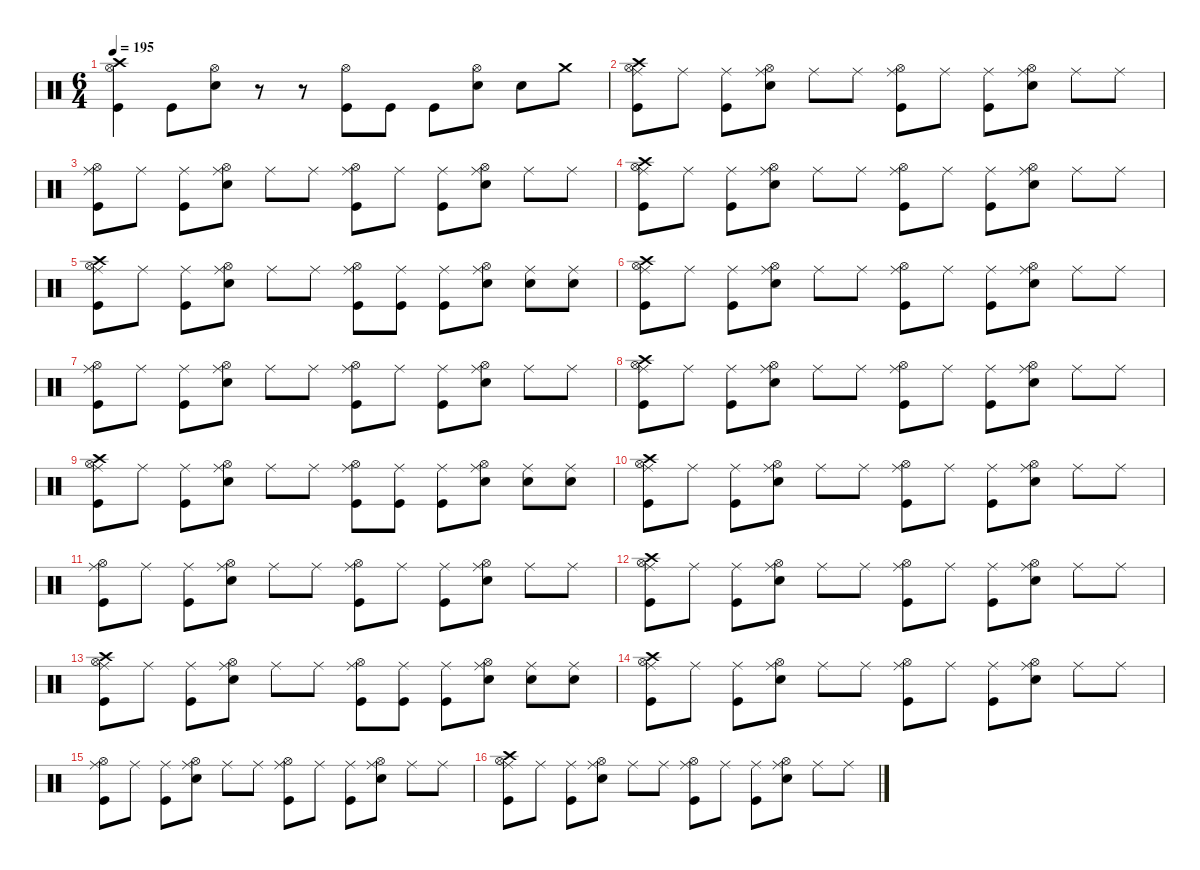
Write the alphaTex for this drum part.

\defaultSystemsLayout 4
\hideDynamics
\bracketExtendMode nobrackets
\singleTrackTrackNamePolicy hidden
\multiTrackTrackNamePolicy hidden
\firstSystemTrackNameMode fullname
\firstSystemTrackNameOrientation horizontal
\otherSystemsTrackNameOrientation horizontal
\track ("Percussion" "drm.") {defaultSystemsLayout 2 instrument percussion}
\staff {score}
\articulation defaults
\ts (6 4)
\tempo 195
\clef neutral
\ks c
("Crash high (hit)" "Hi-Hat (open)" "Kick (hit)").4{dy f beam Down} "Kick (hit)".8{beam Down} ("Hi-Hat (open)" "Snare (hit) 2").8{beam Down} r.8{beam Down} r.8{beam Down} ("Hi-Hat (open)" "Kick (hit)").8{beam Down} "Kick (hit)".8{beam Down} "Kick (hit)".8{beam Down} ("Hi-Hat (open)" "Snare (hit) 2").8{beam Down} "Snare (hit) 2".8{beam Down} "Crash medium (hit)".8{beam Down} |
("Crash high (hit)" "Ride (middle)" "Hi-Hat (open)" "Kick (hit)").8{beam Down} "Ride (middle)".8{beam Down} ("Ride (middle)" "Kick (hit)").8{beam Down} ("Ride (middle)" "Snare (hit) 2" "Hi-Hat (open)").8{beam Down} "Ride (middle)".8{beam Down} "Ride (middle)".8{beam Down} ("Ride (middle)" "Hi-Hat (open)" "Kick (hit)").8{beam Down} "Ride (middle)".8{beam Down} ("Ride (middle)" "Kick (hit)").8{beam Down} ("Ride (middle)" "Snare (hit) 2" "Hi-Hat (open)").8{beam Down} "Ride (middle)".8{beam Down} "Ride (middle)".8{beam Down} |
("Ride (middle)" "Hi-Hat (open)" "Kick (hit)").8{beam Down} "Ride (middle)".8{beam Down} ("Ride (middle)" "Kick (hit)").8{beam Down} ("Ride (middle)" "Snare (hit) 2" "Hi-Hat (open)").8{beam Down} "Ride (middle)".8{beam Down} "Ride (middle)".8{beam Down} ("Ride (middle)" "Hi-Hat (open)" "Kick (hit)").8{beam Down} "Ride (middle)".8{beam Down} ("Ride (middle)" "Kick (hit)").8{beam Down} ("Ride (middle)" "Snare (hit) 2" "Hi-Hat (open)").8{beam Down} "Ride (middle)".8{beam Down} "Ride (middle)".8{beam Down} |
("Crash high (hit)" "Ride (middle)" "Hi-Hat (open)" "Kick (hit)").8{beam Down} "Ride (middle)".8{beam Down} ("Ride (middle)" "Kick (hit)").8{beam Down} ("Ride (middle)" "Snare (hit) 2" "Hi-Hat (open)").8{beam Down} "Ride (middle)".8{beam Down} "Ride (middle)".8{beam Down} ("Ride (middle)" "Hi-Hat (open)" "Kick (hit)").8{beam Down} "Ride (middle)".8{beam Down} ("Ride (middle)" "Kick (hit)").8{beam Down} ("Ride (middle)" "Snare (hit) 2" "Hi-Hat (open)").8{beam Down} "Ride (middle)".8{beam Down} "Ride (middle)".8{beam Down} |
("Crash high (hit)" "Ride (middle)" "Hi-Hat (open)" "Kick (hit)").8{beam Down} "Ride (middle)".8{beam Down} ("Ride (middle)" "Kick (hit)").8{beam Down} ("Ride (middle)" "Snare (hit) 2" "Hi-Hat (open)").8{beam Down} "Ride (middle)".8{beam Down} "Ride (middle)".8{beam Down} ("Ride (middle)" "Hi-Hat (open)" "Kick (hit)").8{beam Down} ("Ride (middle)" "Kick (hit)").8{beam Down} ("Ride (middle)" "Kick (hit)").8{beam Down} ("Ride (middle)" "Snare (hit) 2" "Hi-Hat (open)").8{beam Down} ("Ride (middle)" "Snare (hit) 2").8{beam Down} ("Ride (middle)" "Snare (hit) 2").8{beam Down} |
("Crash high (hit)" "Ride (middle)" "Hi-Hat (open)" "Kick (hit)").8{beam Down} "Ride (middle)".8{beam Down} ("Ride (middle)" "Kick (hit)").8{beam Down} ("Ride (middle)" "Snare (hit) 2" "Hi-Hat (open)").8{beam Down} "Ride (middle)".8{beam Down} "Ride (middle)".8{beam Down} ("Ride (middle)" "Hi-Hat (open)" "Kick (hit)").8{beam Down} "Ride (middle)".8{beam Down} ("Ride (middle)" "Kick (hit)").8{beam Down} ("Ride (middle)" "Snare (hit) 2" "Hi-Hat (open)").8{beam Down} "Ride (middle)".8{beam Down} "Ride (middle)".8{beam Down} |
("Ride (middle)" "Hi-Hat (open)" "Kick (hit)").8{beam Down} "Ride (middle)".8{beam Down} ("Ride (middle)" "Kick (hit)").8{beam Down} ("Ride (middle)" "Snare (hit) 2" "Hi-Hat (open)").8{beam Down} "Ride (middle)".8{beam Down} "Ride (middle)".8{beam Down} ("Ride (middle)" "Hi-Hat (open)" "Kick (hit)").8{beam Down} "Ride (middle)".8{beam Down} ("Ride (middle)" "Kick (hit)").8{beam Down} ("Ride (middle)" "Snare (hit) 2" "Hi-Hat (open)").8{beam Down} "Ride (middle)".8{beam Down} "Ride (middle)".8{beam Down} |
("Crash high (hit)" "Ride (middle)" "Hi-Hat (open)" "Kick (hit)").8{beam Down} "Ride (middle)".8{beam Down} ("Ride (middle)" "Kick (hit)").8{beam Down} ("Ride (middle)" "Snare (hit) 2" "Hi-Hat (open)").8{beam Down} "Ride (middle)".8{beam Down} "Ride (middle)".8{beam Down} ("Ride (middle)" "Hi-Hat (open)" "Kick (hit)").8{beam Down} "Ride (middle)".8{beam Down} ("Ride (middle)" "Kick (hit)").8{beam Down} ("Ride (middle)" "Snare (hit) 2" "Hi-Hat (open)").8{beam Down} "Ride (middle)".8{beam Down} "Ride (middle)".8{beam Down} |
("Crash high (hit)" "Ride (middle)" "Hi-Hat (open)" "Kick (hit)").8{beam Down} "Ride (middle)".8{beam Down} ("Ride (middle)" "Kick (hit)").8{beam Down} ("Ride (middle)" "Snare (hit) 2" "Hi-Hat (open)").8{beam Down} "Ride (middle)".8{beam Down} "Ride (middle)".8{beam Down} ("Ride (middle)" "Hi-Hat (open)" "Kick (hit)").8{beam Down} ("Ride (middle)" "Kick (hit)").8{beam Down} ("Ride (middle)" "Kick (hit)").8{beam Down} ("Ride (middle)" "Snare (hit) 2" "Hi-Hat (open)").8{beam Down} ("Ride (middle)" "Snare (hit) 2").8{beam Down} ("Ride (middle)" "Snare (hit) 2").8{beam Down} |
("Crash high (hit)" "Ride (middle)" "Hi-Hat (open)" "Kick (hit)").8{beam Down} "Ride (middle)".8{beam Down} ("Ride (middle)" "Kick (hit)").8{beam Down} ("Ride (middle)" "Snare (hit) 2" "Hi-Hat (open)").8{beam Down} "Ride (middle)".8{beam Down} "Ride (middle)".8{beam Down} ("Ride (middle)" "Hi-Hat (open)" "Kick (hit)").8{beam Down} "Ride (middle)".8{beam Down} ("Ride (middle)" "Kick (hit)").8{beam Down} ("Ride (middle)" "Snare (hit) 2" "Hi-Hat (open)").8{beam Down} "Ride (middle)".8{beam Down} "Ride (middle)".8{beam Down} |
("Ride (middle)" "Hi-Hat (open)" "Kick (hit)").8{beam Down} "Ride (middle)".8{beam Down} ("Ride (middle)" "Kick (hit)").8{beam Down} ("Ride (middle)" "Snare (hit) 2" "Hi-Hat (open)").8{beam Down} "Ride (middle)".8{beam Down} "Ride (middle)".8{beam Down} ("Ride (middle)" "Hi-Hat (open)" "Kick (hit)").8{beam Down} "Ride (middle)".8{beam Down} ("Ride (middle)" "Kick (hit)").8{beam Down} ("Ride (middle)" "Snare (hit) 2" "Hi-Hat (open)").8{beam Down} "Ride (middle)".8{beam Down} "Ride (middle)".8{beam Down} |
("Crash high (hit)" "Ride (middle)" "Hi-Hat (open)" "Kick (hit)").8{beam Down} "Ride (middle)".8{beam Down} ("Ride (middle)" "Kick (hit)").8{beam Down} ("Ride (middle)" "Snare (hit) 2" "Hi-Hat (open)").8{beam Down} "Ride (middle)".8{beam Down} "Ride (middle)".8{beam Down} ("Ride (middle)" "Hi-Hat (open)" "Kick (hit)").8{beam Down} "Ride (middle)".8{beam Down} ("Ride (middle)" "Kick (hit)").8{beam Down} ("Ride (middle)" "Snare (hit) 2" "Hi-Hat (open)").8{beam Down} "Ride (middle)".8{beam Down} "Ride (middle)".8{beam Down} |
("Crash high (hit)" "Ride (middle)" "Hi-Hat (open)" "Kick (hit)").8{beam Down} "Ride (middle)".8{beam Down} ("Ride (middle)" "Kick (hit)").8{beam Down} ("Ride (middle)" "Snare (hit) 2" "Hi-Hat (open)").8{beam Down} "Ride (middle)".8{beam Down} "Ride (middle)".8{beam Down} ("Ride (middle)" "Hi-Hat (open)" "Kick (hit)").8{beam Down} ("Ride (middle)" "Kick (hit)").8{beam Down} ("Ride (middle)" "Kick (hit)").8{beam Down} ("Ride (middle)" "Snare (hit) 2" "Hi-Hat (open)").8{beam Down} ("Ride (middle)" "Snare (hit) 2").8{beam Down} ("Ride (middle)" "Snare (hit) 2").8{beam Down} |
("Crash high (hit)" "Ride (middle)" "Hi-Hat (open)" "Kick (hit)").8{beam Down} "Ride (middle)".8{beam Down} ("Ride (middle)" "Kick (hit)").8{beam Down} ("Ride (middle)" "Snare (hit) 2" "Hi-Hat (open)").8{beam Down} "Ride (middle)".8{beam Down} "Ride (middle)".8{beam Down} ("Ride (middle)" "Hi-Hat (open)" "Kick (hit)").8{beam Down} "Ride (middle)".8{beam Down} ("Ride (middle)" "Kick (hit)").8{beam Down} ("Ride (middle)" "Snare (hit) 2" "Hi-Hat (open)").8{beam Down} "Ride (middle)".8{beam Down} "Ride (middle)".8{beam Down} |
("Ride (middle)" "Hi-Hat (open)" "Kick (hit)").8{beam Down} "Ride (middle)".8{beam Down} ("Ride (middle)" "Kick (hit)").8{beam Down} ("Ride (middle)" "Snare (hit) 2" "Hi-Hat (open)").8{beam Down} "Ride (middle)".8{beam Down} "Ride (middle)".8{beam Down} ("Ride (middle)" "Hi-Hat (open)" "Kick (hit)").8{beam Down} "Ride (middle)".8{beam Down} ("Ride (middle)" "Kick (hit)").8{beam Down} ("Ride (middle)" "Snare (hit) 2" "Hi-Hat (open)").8{beam Down} "Ride (middle)".8{beam Down} "Ride (middle)".8{beam Down} |
("Crash high (hit)" "Ride (middle)" "Hi-Hat (open)" "Kick (hit)").8{beam Down} "Ride (middle)".8{beam Down} ("Ride (middle)" "Kick (hit)").8{beam Down} ("Ride (middle)" "Snare (hit) 2" "Hi-Hat (open)").8{beam Down} "Ride (middle)".8{beam Down} "Ride (middle)".8{beam Down} ("Ride (middle)" "Hi-Hat (open)" "Kick (hit)").8{beam Down} "Ride (middle)".8{beam Down} ("Ride (middle)" "Kick (hit)").8{beam Down} ("Ride (middle)" "Snare (hit) 2" "Hi-Hat (open)").8{beam Down} "Ride (middle)".8{beam Down} "Ride (middle)".8{beam Down}
